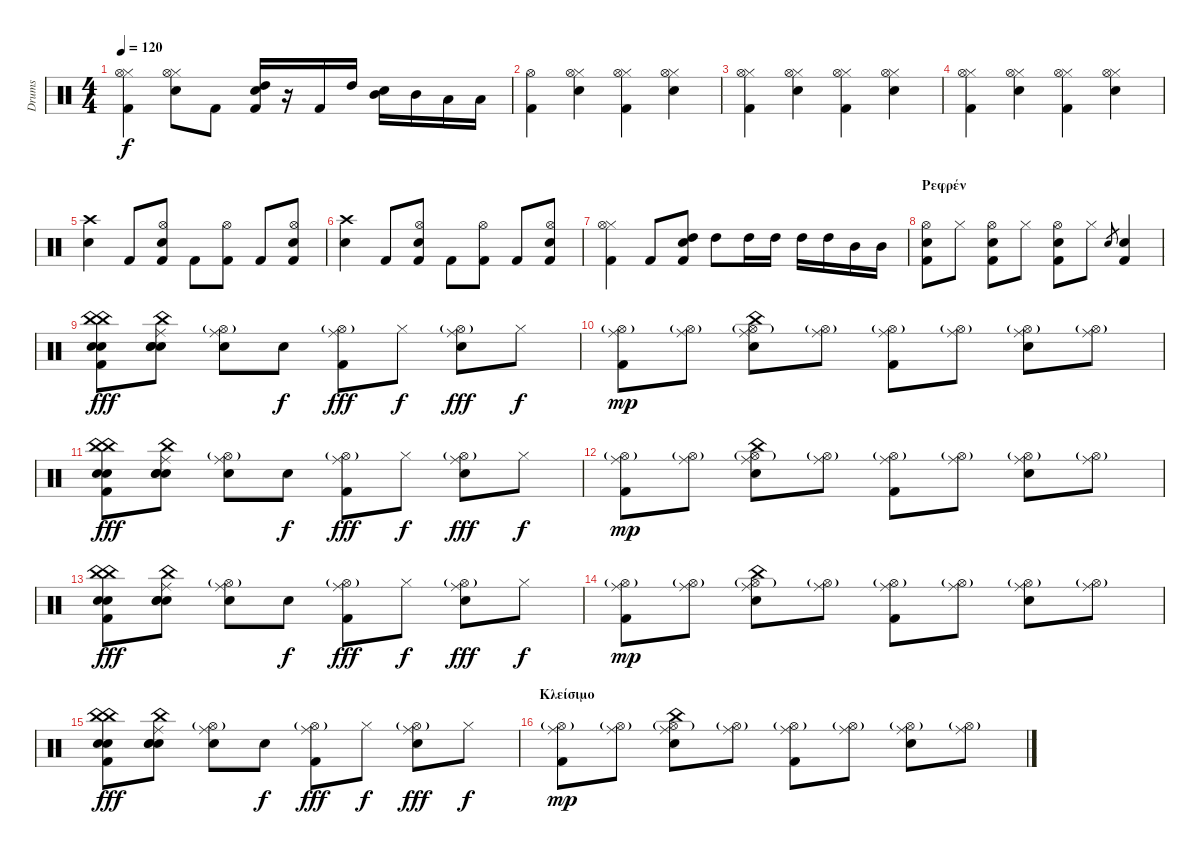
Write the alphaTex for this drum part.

\track ("Drums" "Drums") {instrument percussion}
\staff {score}
\articulation defaults
\ts (4 4)
\tempo 120
\clef neutral
\ks c
("Kick (hit) 2" "Hi-Hat (closed)" "Hi-Hat (open)").4{dy f} ("Electric Snare (hit)" "Hi-Hat (closed)" "Hi-Hat (open)").8 "Kick (hit) 2".8 ("High Tom (hit)" "Electric Snare (hit)" "Kick (hit) 2").16 r.16 "Kick (hit) 2".16 "High Tom (hit)".16 ("Mid Tom (hit)" "Electric Snare (hit)").16 "Mid Tom (hit)".16 "Low Tom (hit)".16 "Low Tom (hit)".16 |
("Kick (hit) 2" "Hi-Hat (open)").4 ("Electric Snare (hit)" "Hi-Hat (closed)" "Hi-Hat (open)").4 ("Kick (hit) 2" "Hi-Hat (closed)" "Hi-Hat (open)").4 ("Electric Snare (hit)" "Hi-Hat (closed)" "Hi-Hat (open)").4 |
("Kick (hit) 2" "Hi-Hat (closed)" "Hi-Hat (open)").4 ("Electric Snare (hit)" "Hi-Hat (closed)" "Hi-Hat (open)").4 ("Kick (hit) 2" "Hi-Hat (closed)" "Hi-Hat (open)").4 ("Electric Snare (hit)" "Hi-Hat (closed)" "Hi-Hat (open)").4 |
("Kick (hit) 2" "Hi-Hat (closed)" "Hi-Hat (open)").4 ("Electric Snare (hit)" "Hi-Hat (closed)" "Hi-Hat (open)").4 ("Kick (hit) 2" "Hi-Hat (closed)" "Hi-Hat (open)").4 ("Electric Snare (hit)" "Hi-Hat (closed)" "Hi-Hat (open)").4 |
("Crash high (hit)" "Electric Snare (hit)").4 "Kick (hit) 2".8 ("Hi-Hat (open)" "Electric Snare (hit)" "Kick (hit) 2").8 "Kick (hit) 2".8 ("Hi-Hat (open)" "Kick (hit) 2").8 "Kick (hit) 2".8 ("Hi-Hat (open)" "Electric Snare (hit)" "Kick (hit) 2").8 |
("Crash high (hit)" "Electric Snare (hit)").4 "Kick (hit) 2".8 ("Hi-Hat (open)" "Electric Snare (hit)" "Kick (hit) 2").8 "Kick (hit) 2".8 ("Hi-Hat (open)" "Kick (hit) 2").8 "Kick (hit) 2".8 ("Hi-Hat (open)" "Electric Snare (hit)" "Kick (hit) 2").8 |
("Kick (hit) 2" "Hi-Hat (closed)" "Hi-Hat (open)").4 "Kick (hit) 2".8 ("High Tom (hit)" "Electric Snare (hit)" "Kick (hit) 2").8 "High Tom (hit)".8 "High Tom (hit)".16 "High Tom (hit)".16 "High Tom (hit)".16 "High Tom (hit)".16 "Mid Tom (hit)".16 "Mid Tom (hit)".16 |
\section ("" "Ρεφρέν")
("Hi-Hat (open)" "Electric Snare (hit)" "Kick (hit) 2").8 "Hi-Hat (closed)".8 ("Hi-Hat (open)" "Electric Snare (hit)" "Kick (hit) 2").8 "Hi-Hat (closed)".8 ("Hi-Hat (open)" "Electric Snare (hit)" "Kick (hit) 2").8 "Hi-Hat (closed)".8 "Electric Snare (hit)".8{gr} ("Electric Snare (hit)" "Kick (hit) 2").4 |
("China (hit)" "China (hit)" "Hand Clap (hit)" "Hand Clap (hit)" "Kick (hit) 2").8{dy fff} ("China (hit)" "Ride (middle)" "Snare (hit)" "Hand Clap (hit)" "Hand Clap (hit)").8 ("Hi-Hat (open)"{g} "Ride (middle)" "Electric Snare (hit)").8 "Electric Snare (hit)".8{dy f} ("Hi-Hat (open)"{g} "Ride (middle)" "Kick (hit) 2").8{dy fff} "Hi-Hat (closed)".8{dy f} ("Hi-Hat (open)"{g} "Ride (middle)" "Electric Snare (hit)").8{dy fff} "Hi-Hat (closed)".8{dy f} |
("Ride (middle)" "Hi-Hat (open)"{g} "Kick (hit) 2").8{dy mp} ("Ride (middle)" "Hi-Hat (open)"{g}).8 ("Ride (middle)" "Hi-Hat (open)"{g} "Electric Snare (hit)" "China (hit)").8 ("Ride (middle)" "Hi-Hat (open)"{g}).8 ("Ride (middle)" "Hi-Hat (open)"{g} "Kick (hit) 2").8 ("Ride (middle)" "Hi-Hat (open)"{g}).8 ("Ride (middle)" "Hi-Hat (open)"{g} "Electric Snare (hit)").8 ("Ride (middle)" "Hi-Hat (open)"{g}).8 |
("China (hit)" "China (hit)" "Hand Clap (hit)" "Hand Clap (hit)" "Kick (hit) 2").8{dy fff} ("China (hit)" "Ride (middle)" "Snare (hit)" "Hand Clap (hit)" "Hand Clap (hit)").8 ("Hi-Hat (open)"{g} "Ride (middle)" "Electric Snare (hit)").8 "Electric Snare (hit)".8{dy f} ("Hi-Hat (open)"{g} "Ride (middle)" "Kick (hit) 2").8{dy fff} "Hi-Hat (closed)".8{dy f} ("Hi-Hat (open)"{g} "Ride (middle)" "Electric Snare (hit)").8{dy fff} "Hi-Hat (closed)".8{dy f} |
("Ride (middle)" "Hi-Hat (open)"{g} "Kick (hit) 2").8{dy mp} ("Ride (middle)" "Hi-Hat (open)"{g}).8 ("Ride (middle)" "Hi-Hat (open)"{g} "Electric Snare (hit)" "China (hit)").8 ("Ride (middle)" "Hi-Hat (open)"{g}).8 ("Ride (middle)" "Hi-Hat (open)"{g} "Kick (hit) 2").8 ("Ride (middle)" "Hi-Hat (open)"{g}).8 ("Ride (middle)" "Hi-Hat (open)"{g} "Electric Snare (hit)").8 ("Ride (middle)" "Hi-Hat (open)"{g}).8 |
("China (hit)" "China (hit)" "Hand Clap (hit)" "Hand Clap (hit)" "Kick (hit) 2").8{dy fff} ("China (hit)" "Ride (middle)" "Snare (hit)" "Hand Clap (hit)" "Hand Clap (hit)").8 ("Hi-Hat (open)"{g} "Ride (middle)" "Electric Snare (hit)").8 "Electric Snare (hit)".8{dy f} ("Hi-Hat (open)"{g} "Ride (middle)" "Kick (hit) 2").8{dy fff} "Hi-Hat (closed)".8{dy f} ("Hi-Hat (open)"{g} "Ride (middle)" "Electric Snare (hit)").8{dy fff} "Hi-Hat (closed)".8{dy f} |
("Ride (middle)" "Hi-Hat (open)"{g} "Kick (hit) 2").8{dy mp} ("Ride (middle)" "Hi-Hat (open)"{g}).8 ("Ride (middle)" "Hi-Hat (open)"{g} "Electric Snare (hit)" "China (hit)").8 ("Ride (middle)" "Hi-Hat (open)"{g}).8 ("Ride (middle)" "Hi-Hat (open)"{g} "Kick (hit) 2").8 ("Ride (middle)" "Hi-Hat (open)"{g}).8 ("Ride (middle)" "Hi-Hat (open)"{g} "Electric Snare (hit)").8 ("Ride (middle)" "Hi-Hat (open)"{g}).8 |
("China (hit)" "China (hit)" "Hand Clap (hit)" "Hand Clap (hit)" "Kick (hit) 2").8{dy fff} ("China (hit)" "Ride (middle)" "Snare (hit)" "Hand Clap (hit)" "Hand Clap (hit)").8 ("Hi-Hat (open)"{g} "Ride (middle)" "Electric Snare (hit)").8 "Electric Snare (hit)".8{dy f} ("Hi-Hat (open)"{g} "Ride (middle)" "Kick (hit) 2").8{dy fff} "Hi-Hat (closed)".8{dy f} ("Hi-Hat (open)"{g} "Ride (middle)" "Electric Snare (hit)").8{dy fff} "Hi-Hat (closed)".8{dy f} |
\section ("" "Κλείσιμο")
("Ride (middle)" "Hi-Hat (open)"{g} "Kick (hit) 2").8{dy mp} ("Ride (middle)" "Hi-Hat (open)"{g}).8 ("Ride (middle)" "Hi-Hat (open)"{g} "Electric Snare (hit)" "China (hit)").8 ("Ride (middle)" "Hi-Hat (open)"{g}).8 ("Ride (middle)" "Hi-Hat (open)"{g} "Kick (hit) 2").8 ("Ride (middle)" "Hi-Hat (open)"{g}).8 ("Ride (middle)" "Hi-Hat (open)"{g} "Electric Snare (hit)").8 ("Ride (middle)" "Hi-Hat (open)"{g}).8
